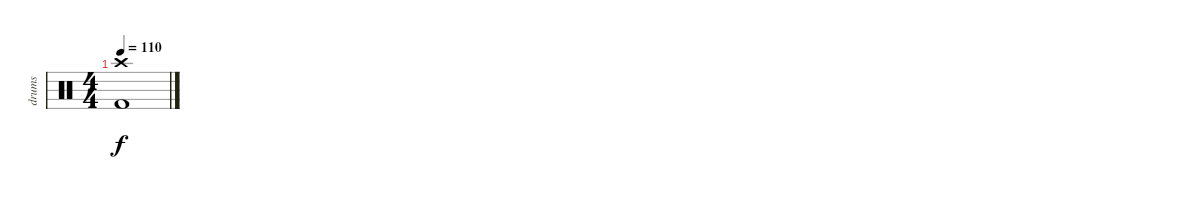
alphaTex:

\track ("drums" "drums") {instrument percussion}
\staff {score}
\articulation defaults
\ts (4 4)
\tempo 110
\clef neutral
\ks aminor
("Crash high (hit)" "Kick (hit) 2").1{dy f}
